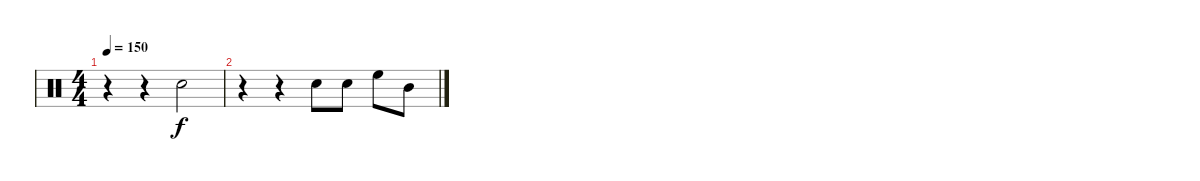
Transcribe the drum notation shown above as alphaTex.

\track "" {instrument percussion}
\staff {score}
\articulation defaults
\ts (4 4)
\tempo 150
\clef neutral
\ks c
r.4{dy f} r.4 "Electric Snare (hit)".2 |
r.4 r.4 "Electric Snare (hit)".8 "Electric Snare (hit)".8 "High Floor Tom (hit)".8 "Mid Tom (hit)".8
